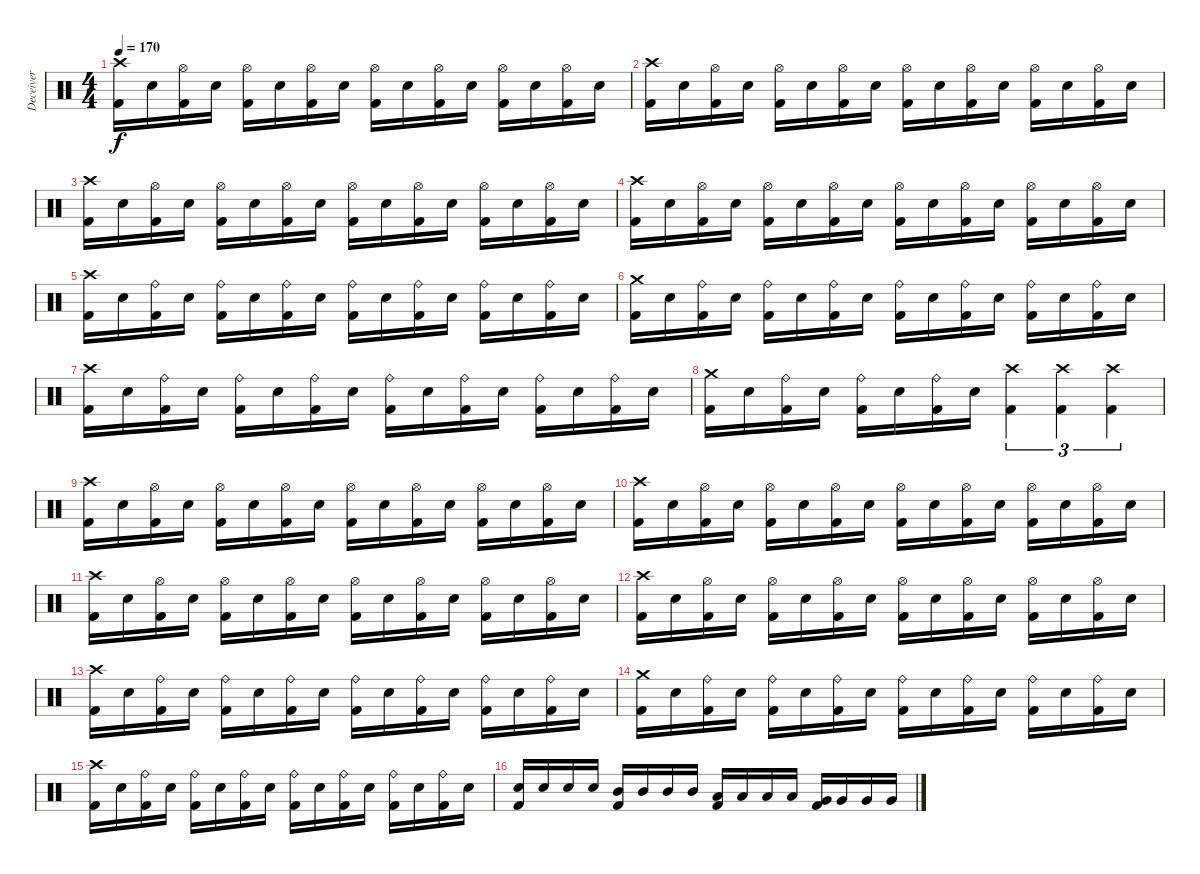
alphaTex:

\track ("Deceiver" "Deceiver") {instrument percussion}
\staff {score}
\articulation defaults
\ts (4 4)
\tempo 170
\clef neutral
\ks c
("Crash high (hit)" "Kick (hit) 2").16{dy f} "Electric Snare (hit)".16 ("Hi-Hat (open)" "Kick (hit) 2").16 "Electric Snare (hit)".16 ("Hi-Hat (open)" "Kick (hit) 2").16 "Electric Snare (hit)".16 ("Hi-Hat (open)" "Kick (hit) 2").16 "Electric Snare (hit)".16 ("Hi-Hat (open)" "Kick (hit) 2").16 "Electric Snare (hit)".16 ("Hi-Hat (open)" "Kick (hit) 2").16 "Electric Snare (hit)".16 ("Hi-Hat (open)" "Kick (hit) 2").16 "Electric Snare (hit)".16 ("Hi-Hat (open)" "Kick (hit) 2").16 "Electric Snare (hit)".16 |
("Crash high (hit)" "Kick (hit) 2").16 "Electric Snare (hit)".16 ("Hi-Hat (open)" "Kick (hit) 2").16 "Electric Snare (hit)".16 ("Hi-Hat (open)" "Kick (hit) 2").16 "Electric Snare (hit)".16 ("Hi-Hat (open)" "Kick (hit) 2").16 "Electric Snare (hit)".16 ("Hi-Hat (open)" "Kick (hit) 2").16 "Electric Snare (hit)".16 ("Hi-Hat (open)" "Kick (hit) 2").16 "Electric Snare (hit)".16 ("Hi-Hat (open)" "Kick (hit) 2").16 "Electric Snare (hit)".16 ("Hi-Hat (open)" "Kick (hit) 2").16 "Electric Snare (hit)".16 |
("Crash high (hit)" "Kick (hit) 2").16 "Electric Snare (hit)".16 ("Hi-Hat (open)" "Kick (hit) 2").16 "Electric Snare (hit)".16 ("Hi-Hat (open)" "Kick (hit) 2").16 "Electric Snare (hit)".16 ("Hi-Hat (open)" "Kick (hit) 2").16 "Electric Snare (hit)".16 ("Hi-Hat (open)" "Kick (hit) 2").16 "Electric Snare (hit)".16 ("Hi-Hat (open)" "Kick (hit) 2").16 "Electric Snare (hit)".16 ("Hi-Hat (open)" "Kick (hit) 2").16 "Electric Snare (hit)".16 ("Hi-Hat (open)" "Kick (hit) 2").16 "Electric Snare (hit)".16 |
("Crash high (hit)" "Kick (hit) 2").16 "Electric Snare (hit)".16 ("Hi-Hat (open)" "Kick (hit) 2").16 "Electric Snare (hit)".16 ("Hi-Hat (open)" "Kick (hit) 2").16 "Electric Snare (hit)".16 ("Hi-Hat (open)" "Kick (hit) 2").16 "Electric Snare (hit)".16 ("Hi-Hat (open)" "Kick (hit) 2").16 "Electric Snare (hit)".16 ("Hi-Hat (open)" "Kick (hit) 2").16 "Electric Snare (hit)".16 ("Hi-Hat (open)" "Kick (hit) 2").16 "Electric Snare (hit)".16 ("Hi-Hat (open)" "Kick (hit) 2").16 "Electric Snare (hit)".16 |
("Crash high (hit)" "Kick (hit) 2").16 "Electric Snare (hit)".16 ("Ride (bell)" "Kick (hit) 2").16 "Electric Snare (hit)".16 ("Ride (bell)" "Kick (hit) 2").16 "Electric Snare (hit)".16 ("Ride (bell)" "Kick (hit) 2").16 "Electric Snare (hit)".16 ("Ride (bell)" "Kick (hit) 2").16 "Electric Snare (hit)".16 ("Ride (bell)" "Kick (hit) 2").16 "Electric Snare (hit)".16 ("Ride (bell)" "Kick (hit) 2").16 "Electric Snare (hit)".16 ("Ride (bell)" "Kick (hit) 2").16 "Electric Snare (hit)".16 |
("Crash medium (hit)" "Kick (hit) 2").16 "Electric Snare (hit)".16 ("Ride (bell)" "Kick (hit) 2").16 "Electric Snare (hit)".16 ("Ride (bell)" "Kick (hit) 2").16 "Electric Snare (hit)".16 ("Ride (bell)" "Kick (hit) 2").16 "Electric Snare (hit)".16 ("Ride (bell)" "Kick (hit) 2").16 "Electric Snare (hit)".16 ("Ride (bell)" "Kick (hit) 2").16 "Electric Snare (hit)".16 ("Ride (bell)" "Kick (hit) 2").16 "Electric Snare (hit)".16 ("Ride (bell)" "Kick (hit) 2").16 "Electric Snare (hit)".16 |
("Crash high (hit)" "Kick (hit) 2").16 "Electric Snare (hit)".16 ("Ride (bell)" "Kick (hit) 2").16 "Electric Snare (hit)".16 ("Ride (bell)" "Kick (hit) 2").16 "Electric Snare (hit)".16 ("Ride (bell)" "Kick (hit) 2").16 "Electric Snare (hit)".16 ("Ride (bell)" "Kick (hit) 2").16 "Electric Snare (hit)".16 ("Ride (bell)" "Kick (hit) 2").16 "Electric Snare (hit)".16 ("Ride (bell)" "Kick (hit) 2").16 "Electric Snare (hit)".16 ("Ride (bell)" "Kick (hit) 2").16 "Electric Snare (hit)".16 |
("Crash medium (hit)" "Kick (hit) 2").16 "Electric Snare (hit)".16 ("Ride (bell)" "Kick (hit) 2").16 "Electric Snare (hit)".16 ("Ride (bell)" "Kick (hit) 2").16 "Electric Snare (hit)".16 ("Ride (bell)" "Kick (hit) 2").16 "Electric Snare (hit)".16 ("Crash high (hit)" "Kick (hit) 2").4{tu (3 2)} ("Crash high (hit)" "Kick (hit) 2").4{tu (3 2)} ("Crash high (hit)" "Kick (hit) 2").4{tu (3 2)} |
("Crash high (hit)" "Kick (hit) 2").16 "Electric Snare (hit)".16 ("Hi-Hat (open)" "Kick (hit) 2").16 "Electric Snare (hit)".16 ("Hi-Hat (open)" "Kick (hit) 2").16 "Electric Snare (hit)".16 ("Hi-Hat (open)" "Kick (hit) 2").16 "Electric Snare (hit)".16 ("Hi-Hat (open)" "Kick (hit) 2").16 "Electric Snare (hit)".16 ("Hi-Hat (open)" "Kick (hit) 2").16 "Electric Snare (hit)".16 ("Hi-Hat (open)" "Kick (hit) 2").16 "Electric Snare (hit)".16 ("Hi-Hat (open)" "Kick (hit) 2").16 "Electric Snare (hit)".16 |
("Crash high (hit)" "Kick (hit) 2").16 "Electric Snare (hit)".16 ("Hi-Hat (open)" "Kick (hit) 2").16 "Electric Snare (hit)".16 ("Hi-Hat (open)" "Kick (hit) 2").16 "Electric Snare (hit)".16 ("Hi-Hat (open)" "Kick (hit) 2").16 "Electric Snare (hit)".16 ("Hi-Hat (open)" "Kick (hit) 2").16 "Electric Snare (hit)".16 ("Hi-Hat (open)" "Kick (hit) 2").16 "Electric Snare (hit)".16 ("Hi-Hat (open)" "Kick (hit) 2").16 "Electric Snare (hit)".16 ("Hi-Hat (open)" "Kick (hit) 2").16 "Electric Snare (hit)".16 |
("Crash high (hit)" "Kick (hit) 2").16 "Electric Snare (hit)".16 ("Hi-Hat (open)" "Kick (hit) 2").16 "Electric Snare (hit)".16 ("Hi-Hat (open)" "Kick (hit) 2").16 "Electric Snare (hit)".16 ("Hi-Hat (open)" "Kick (hit) 2").16 "Electric Snare (hit)".16 ("Hi-Hat (open)" "Kick (hit) 2").16 "Electric Snare (hit)".16 ("Hi-Hat (open)" "Kick (hit) 2").16 "Electric Snare (hit)".16 ("Hi-Hat (open)" "Kick (hit) 2").16 "Electric Snare (hit)".16 ("Hi-Hat (open)" "Kick (hit) 2").16 "Electric Snare (hit)".16 |
("Crash high (hit)" "Kick (hit) 2").16 "Electric Snare (hit)".16 ("Hi-Hat (open)" "Kick (hit) 2").16 "Electric Snare (hit)".16 ("Hi-Hat (open)" "Kick (hit) 2").16 "Electric Snare (hit)".16 ("Hi-Hat (open)" "Kick (hit) 2").16 "Electric Snare (hit)".16 ("Hi-Hat (open)" "Kick (hit) 2").16 "Electric Snare (hit)".16 ("Hi-Hat (open)" "Kick (hit) 2").16 "Electric Snare (hit)".16 ("Hi-Hat (open)" "Kick (hit) 2").16 "Electric Snare (hit)".16 ("Hi-Hat (open)" "Kick (hit) 2").16 "Electric Snare (hit)".16 |
("Crash high (hit)" "Kick (hit) 2").16 "Electric Snare (hit)".16 ("Ride (bell)" "Kick (hit) 2").16 "Electric Snare (hit)".16 ("Ride (bell)" "Kick (hit) 2").16 "Electric Snare (hit)".16 ("Ride (bell)" "Kick (hit) 2").16 "Electric Snare (hit)".16 ("Ride (bell)" "Kick (hit) 2").16 "Electric Snare (hit)".16 ("Ride (bell)" "Kick (hit) 2").16 "Electric Snare (hit)".16 ("Ride (bell)" "Kick (hit) 2").16 "Electric Snare (hit)".16 ("Ride (bell)" "Kick (hit) 2").16 "Electric Snare (hit)".16 |
("Crash medium (hit)" "Kick (hit) 2").16 "Electric Snare (hit)".16 ("Ride (bell)" "Kick (hit) 2").16 "Electric Snare (hit)".16 ("Ride (bell)" "Kick (hit) 2").16 "Electric Snare (hit)".16 ("Ride (bell)" "Kick (hit) 2").16 "Electric Snare (hit)".16 ("Ride (bell)" "Kick (hit) 2").16 "Electric Snare (hit)".16 ("Ride (bell)" "Kick (hit) 2").16 "Electric Snare (hit)".16 ("Ride (bell)" "Kick (hit) 2").16 "Electric Snare (hit)".16 ("Ride (bell)" "Kick (hit) 2").16 "Electric Snare (hit)".16 |
("Crash high (hit)" "Kick (hit) 2").16 "Electric Snare (hit)".16 ("Ride (bell)" "Kick (hit) 2").16 "Electric Snare (hit)".16 ("Ride (bell)" "Kick (hit) 2").16 "Electric Snare (hit)".16 ("Ride (bell)" "Kick (hit) 2").16 "Electric Snare (hit)".16 ("Ride (bell)" "Kick (hit) 2").16 "Electric Snare (hit)".16 ("Ride (bell)" "Kick (hit) 2").16 "Electric Snare (hit)".16 ("Ride (bell)" "Kick (hit) 2").16 "Electric Snare (hit)".16 ("Ride (bell)" "Kick (hit) 2").16 "Electric Snare (hit)".16 |
("Electric Snare (hit)" "Kick (hit) 2").16 "Electric Snare (hit)".16 "Electric Snare (hit)".16 "Electric Snare (hit)".16 ("Mid Tom (hit)" "Kick (hit) 2").16 "Mid Tom (hit)".16 "Mid Tom (hit)".16 "Mid Tom (hit)".16 ("Low Tom (hit)" "Kick (hit) 2").16 "Low Tom (hit)".16 "Low Tom (hit)".16 "Low Tom (hit)".16 ("Very Low Tom (hit)" "Kick (hit) 2").16 "Very Low Tom (hit)".16 "Very Low Tom (hit)".16 "Very Low Tom (hit)".16
